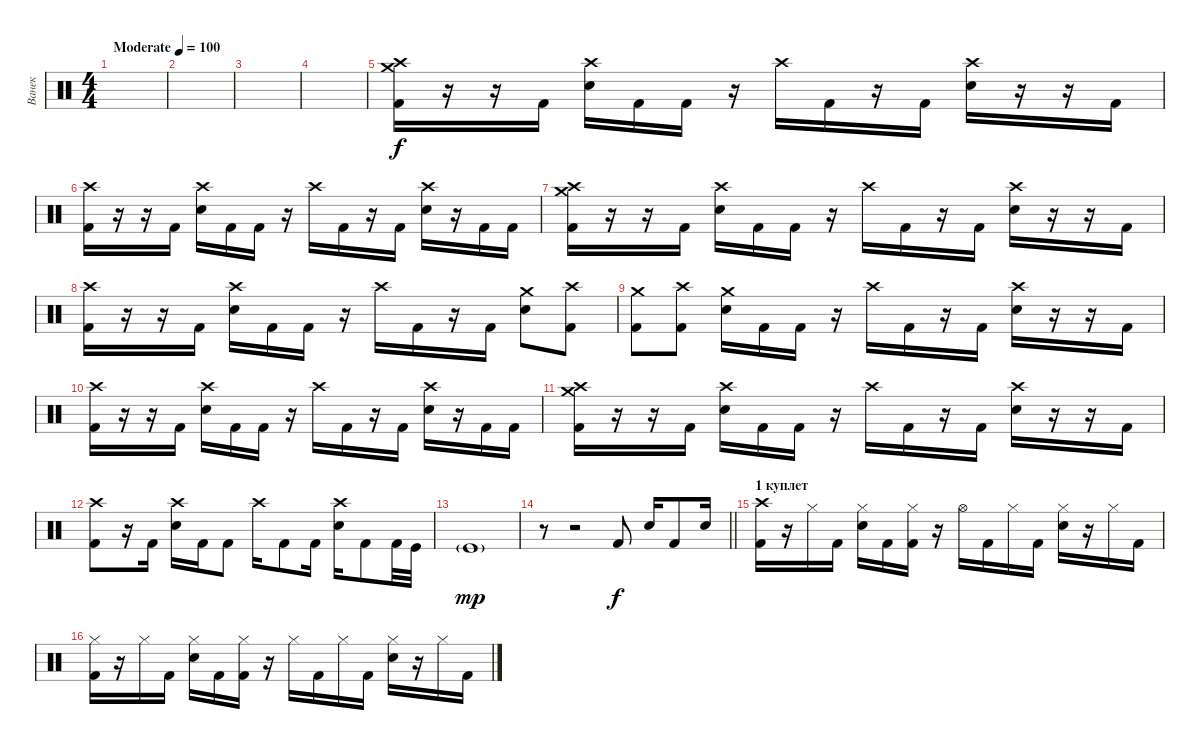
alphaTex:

\track ("Ванек" "Ванек") {instrument percussion}
\staff {score}
\articulation defaults
\ts (4 4)
\tempo (100 "Moderate")
\clef neutral
\ks c
|
|
|
|
("Crash high (hit)" "Crash medium (hit)" "Kick (hit) 2").16 r.16 r.16 "Kick (hit) 2".16 ("Crash high (hit)" "Snare (hit) 2").16 "Kick (hit) 2".16 "Kick (hit) 2".16 r.16 "Crash high (hit)".16 "Kick (hit) 2".16 r.16 "Kick (hit) 2".16 ("Crash high (hit)" "Snare (hit) 2").16 r.16 r.16 "Kick (hit) 2".16 |
("Crash high (hit)" "Kick (hit) 2").16 r.16 r.16 "Kick (hit) 2".16 ("Crash high (hit)" "Snare (hit) 2").16 "Kick (hit) 2".16 "Kick (hit) 2".16 r.16 "Crash high (hit)".16 "Kick (hit) 2".16 r.16 "Kick (hit) 2".16 ("Crash high (hit)" "Snare (hit) 2").16 r.16 "Kick (hit) 2".16 "Kick (hit) 2".16 |
("Crash high (hit)" "Crash medium (hit)" "Kick (hit) 2").16 r.16 r.16 "Kick (hit) 2".16 ("Crash high (hit)" "Snare (hit) 2").16 "Kick (hit) 2".16 "Kick (hit) 2".16 r.16 "Crash high (hit)".16 "Kick (hit) 2".16 r.16 "Kick (hit) 2".16 ("Crash high (hit)" "Snare (hit) 2").16 r.16 r.16 "Kick (hit) 2".16 |
("Crash high (hit)" "Kick (hit) 2").16 r.16 r.16 "Kick (hit) 2".16 ("Crash high (hit)" "Snare (hit) 2").16 "Kick (hit) 2".16 "Kick (hit) 2".16 r.16 "Crash high (hit)".16 "Kick (hit) 2".16 r.16 "Kick (hit) 2".16 ("Crash medium (hit)" "Snare (hit) 2").8 ("Crash high (hit)" "Kick (hit) 2").8 |
("Crash medium (hit)" "Kick (hit) 2").8 ("Crash high (hit)" "Kick (hit) 2").8 ("Crash medium (hit)" "Snare (hit) 2").16 "Kick (hit) 2".16 "Kick (hit) 2".16 r.16 "Crash high (hit)".16 "Kick (hit) 2".16 r.16 "Kick (hit) 2".16 ("Crash high (hit)" "Snare (hit) 2").16 r.16 r.16 "Kick (hit) 2".16 |
("Crash high (hit)" "Kick (hit) 2").16 r.16 r.16 "Kick (hit) 2".16 ("Crash high (hit)" "Snare (hit) 2").16 "Kick (hit) 2".16 "Kick (hit) 2".16 r.16 "Crash high (hit)".16 "Kick (hit) 2".16 r.16 "Kick (hit) 2".16 ("Crash high (hit)" "Snare (hit) 2").16 r.16 "Kick (hit) 2".16 "Kick (hit) 2".16 |
("Crash high (hit)" "Crash medium (hit)" "Kick (hit) 2").16 r.16 r.16 "Kick (hit) 2".16 ("Crash high (hit)" "Snare (hit) 2").16 "Kick (hit) 2".16 "Kick (hit) 2".16 r.16 "Crash high (hit)".16 "Kick (hit) 2".16 r.16 "Kick (hit) 2".16 ("Crash high (hit)" "Snare (hit) 2").16 r.16 r.16 "Kick (hit) 2".16 |
("Crash high (hit)" "Kick (hit) 2").8 r.16 "Kick (hit) 2".16 ("Crash high (hit)" "Snare (hit) 2").16 "Kick (hit) 2".16 "Kick (hit) 2".8 "Crash high (hit)".16 "Kick (hit) 2".8 "Kick (hit) 2".16 ("Crash high (hit)" "Snare (hit) 2").16 "Kick (hit) 2".8 "Kick (hit) 2".32 "Kick (hit)".32 |
"Kick (hit)"{g}.1{dy mp} |
\barLineRight lightlight
r.8 r.2 "Kick (hit) 2".8{dy f} "Snare (hit) 2".16 "Kick (hit) 2".8 "Snare (hit) 2".16 |
\section ("" "1 куплет")
("Crash high (hit)" "Kick (hit) 2").16 r.16 "Hi-Hat (closed)".16 "Kick (hit) 2".16 ("Hi-Hat (closed)" "Snare (hit) 2").16 "Kick (hit) 2".16 ("Hi-Hat (closed)" "Kick (hit) 2").16 r.16 "Hi-Hat (open)".16 "Kick (hit) 2".16 "Hi-Hat (closed)".16 "Kick (hit) 2".16 ("Hi-Hat (closed)" "Snare (hit) 2").16 r.16 "Hi-Hat (closed)".16 "Kick (hit) 2".16 |
("Hi-Hat (closed)" "Kick (hit) 2").16 r.16 "Hi-Hat (closed)".16 "Kick (hit) 2".16 ("Hi-Hat (closed)" "Snare (hit) 2").16 "Kick (hit) 2".16 ("Hi-Hat (closed)" "Kick (hit) 2").16 r.16 "Hi-Hat (closed)".16 "Kick (hit) 2".16 "Hi-Hat (closed)".16 "Kick (hit) 2".16 ("Hi-Hat (closed)" "Snare (hit) 2").16 r.16 "Hi-Hat (closed)".16 "Kick (hit) 2".16
